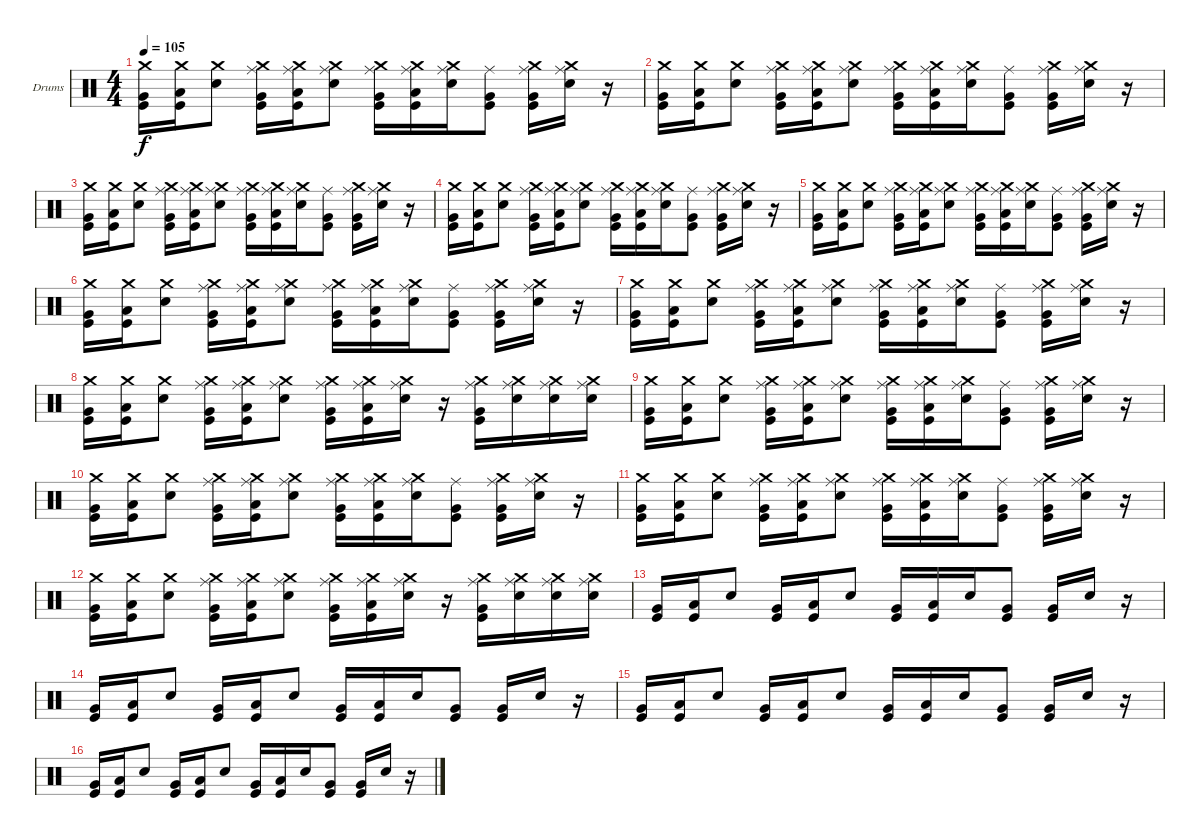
\defaultSystemsLayout 4
\bracketExtendMode groupsimilarinstruments
\firstSystemTrackNameOrientation horizontal
\otherSystemsTrackNameOrientation horizontal
\track ("Steve" "Drums") {instrument percussion}
\staff {score}
\articulation defaults
\ts (4 4)
\tempo 105
\clef neutral
\ks c
("Very Low Tom (hit)" "Crash medium (hit)" "Kick (hit)").16{dy f} ("Low Tom (hit)" "Crash medium (hit)" "Kick (hit)").16 ("Snare (hit) 2" "Crash medium (hit)").8 ("Very Low Tom (hit)" "Ride (middle)" "Kick (hit)" "Crash medium (hit)").16 ("Low Tom (hit)" "Ride (middle)" "Kick (hit)" "Crash medium (hit)").16 ("Snare (hit) 2" "Ride (middle)" "Crash medium (hit)").8 ("Very Low Tom (hit)" "Ride (middle)" "Kick (hit)" "Crash medium (hit)").16 ("Low Tom (hit)" "Ride (middle)" "Kick (hit)" "Crash medium (hit)").16 ("Snare (hit) 2" "Ride (middle)" "Crash medium (hit)").16 ("Very Low Tom (hit)" "Ride (middle)" "Kick (hit)").8 ("Very Low Tom (hit)" "Ride (middle)" "Kick (hit)" "Crash medium (hit)").16 ("Snare (hit) 2" "Ride (middle)" "Crash medium (hit)").16 r.16 |
("Very Low Tom (hit)" "Crash medium (hit)" "Kick (hit)").16 ("Low Tom (hit)" "Crash medium (hit)" "Kick (hit)").16 ("Snare (hit) 2" "Crash medium (hit)").8 ("Very Low Tom (hit)" "Ride (middle)" "Kick (hit)" "Crash medium (hit)").16 ("Low Tom (hit)" "Ride (middle)" "Kick (hit)" "Crash medium (hit)").16 ("Snare (hit) 2" "Ride (middle)" "Crash medium (hit)").8 ("Very Low Tom (hit)" "Ride (middle)" "Kick (hit)" "Crash medium (hit)").16 ("Low Tom (hit)" "Ride (middle)" "Kick (hit)" "Crash medium (hit)").16 ("Snare (hit) 2" "Ride (middle)" "Crash medium (hit)").16 ("Very Low Tom (hit)" "Ride (middle)" "Kick (hit)").8 ("Very Low Tom (hit)" "Ride (middle)" "Kick (hit)" "Crash medium (hit)").16 ("Snare (hit) 2" "Ride (middle)" "Crash medium (hit)").16 r.16 |
("Very Low Tom (hit)" "Crash medium (hit)" "Kick (hit)").16 ("Low Tom (hit)" "Crash medium (hit)" "Kick (hit)").16 ("Snare (hit) 2" "Crash medium (hit)").8 ("Very Low Tom (hit)" "Ride (middle)" "Kick (hit)" "Crash medium (hit)").16 ("Low Tom (hit)" "Ride (middle)" "Kick (hit)" "Crash medium (hit)").16 ("Snare (hit) 2" "Ride (middle)" "Crash medium (hit)").8 ("Very Low Tom (hit)" "Ride (middle)" "Kick (hit)" "Crash medium (hit)").16 ("Low Tom (hit)" "Ride (middle)" "Kick (hit)" "Crash medium (hit)").16 ("Snare (hit) 2" "Ride (middle)" "Crash medium (hit)").16 ("Very Low Tom (hit)" "Ride (middle)" "Kick (hit)").8 ("Very Low Tom (hit)" "Ride (middle)" "Kick (hit)" "Crash medium (hit)").16 ("Snare (hit) 2" "Ride (middle)" "Crash medium (hit)").16 r.16 |
("Very Low Tom (hit)" "Crash medium (hit)" "Kick (hit)").16 ("Low Tom (hit)" "Crash medium (hit)" "Kick (hit)").16 ("Snare (hit) 2" "Crash medium (hit)").8 ("Very Low Tom (hit)" "Ride (middle)" "Kick (hit)" "Crash medium (hit)").16 ("Low Tom (hit)" "Ride (middle)" "Kick (hit)" "Crash medium (hit)").16 ("Snare (hit) 2" "Ride (middle)" "Crash medium (hit)").8 ("Very Low Tom (hit)" "Ride (middle)" "Kick (hit)" "Crash medium (hit)").16 ("Low Tom (hit)" "Ride (middle)" "Kick (hit)" "Crash medium (hit)").16 ("Snare (hit) 2" "Ride (middle)" "Crash medium (hit)").16 ("Very Low Tom (hit)" "Ride (middle)" "Kick (hit)").8 ("Very Low Tom (hit)" "Ride (middle)" "Kick (hit)" "Crash medium (hit)").16 ("Snare (hit) 2" "Ride (middle)" "Crash medium (hit)").16 r.16 |
("Very Low Tom (hit)" "Crash medium (hit)" "Kick (hit)").16 ("Low Tom (hit)" "Crash medium (hit)" "Kick (hit)").16 ("Snare (hit) 2" "Crash medium (hit)").8 ("Very Low Tom (hit)" "Ride (middle)" "Kick (hit)" "Crash medium (hit)").16 ("Low Tom (hit)" "Ride (middle)" "Kick (hit)" "Crash medium (hit)").16 ("Snare (hit) 2" "Ride (middle)" "Crash medium (hit)").8 ("Very Low Tom (hit)" "Ride (middle)" "Kick (hit)" "Crash medium (hit)").16 ("Low Tom (hit)" "Ride (middle)" "Kick (hit)" "Crash medium (hit)").16 ("Snare (hit) 2" "Ride (middle)" "Crash medium (hit)").16 ("Very Low Tom (hit)" "Ride (middle)" "Kick (hit)").8 ("Very Low Tom (hit)" "Ride (middle)" "Kick (hit)" "Crash medium (hit)").16 ("Snare (hit) 2" "Ride (middle)" "Crash medium (hit)").16 r.16 |
("Very Low Tom (hit)" "Crash medium (hit)" "Kick (hit)").16 ("Low Tom (hit)" "Crash medium (hit)" "Kick (hit)").16 ("Snare (hit) 2" "Crash medium (hit)").8 ("Very Low Tom (hit)" "Ride (middle)" "Kick (hit)" "Crash medium (hit)").16 ("Low Tom (hit)" "Ride (middle)" "Kick (hit)" "Crash medium (hit)").16 ("Snare (hit) 2" "Ride (middle)" "Crash medium (hit)").8 ("Very Low Tom (hit)" "Ride (middle)" "Kick (hit)" "Crash medium (hit)").16 ("Low Tom (hit)" "Ride (middle)" "Kick (hit)" "Crash medium (hit)").16 ("Snare (hit) 2" "Ride (middle)" "Crash medium (hit)").16 ("Very Low Tom (hit)" "Ride (middle)" "Kick (hit)").8 ("Very Low Tom (hit)" "Ride (middle)" "Kick (hit)" "Crash medium (hit)").16 ("Snare (hit) 2" "Ride (middle)" "Crash medium (hit)").16 r.16 |
("Very Low Tom (hit)" "Crash medium (hit)" "Kick (hit)").16 ("Low Tom (hit)" "Crash medium (hit)" "Kick (hit)").16 ("Snare (hit) 2" "Crash medium (hit)").8 ("Very Low Tom (hit)" "Ride (middle)" "Kick (hit)" "Crash medium (hit)").16 ("Low Tom (hit)" "Ride (middle)" "Kick (hit)" "Crash medium (hit)").16 ("Snare (hit) 2" "Ride (middle)" "Crash medium (hit)").8 ("Very Low Tom (hit)" "Ride (middle)" "Kick (hit)" "Crash medium (hit)").16 ("Low Tom (hit)" "Ride (middle)" "Kick (hit)" "Crash medium (hit)").16 ("Snare (hit) 2" "Ride (middle)" "Crash medium (hit)").16 ("Very Low Tom (hit)" "Ride (middle)" "Kick (hit)").8 ("Very Low Tom (hit)" "Ride (middle)" "Kick (hit)" "Crash medium (hit)").16 ("Snare (hit) 2" "Ride (middle)" "Crash medium (hit)").16 r.16 |
("Very Low Tom (hit)" "Crash medium (hit)" "Kick (hit)").16 ("Low Tom (hit)" "Crash medium (hit)" "Kick (hit)").16 ("Snare (hit) 2" "Crash medium (hit)").8 ("Very Low Tom (hit)" "Ride (middle)" "Kick (hit)" "Crash medium (hit)").16 ("Low Tom (hit)" "Ride (middle)" "Kick (hit)" "Crash medium (hit)").16 ("Snare (hit) 2" "Ride (middle)" "Crash medium (hit)").8 ("Very Low Tom (hit)" "Ride (middle)" "Kick (hit)" "Crash medium (hit)").16 ("Low Tom (hit)" "Ride (middle)" "Kick (hit)" "Crash medium (hit)").16 ("Snare (hit) 2" "Ride (middle)" "Crash medium (hit)").16 r.16 ("Very Low Tom (hit)" "Ride (middle)" "Kick (hit)" "Crash medium (hit)").16 ("Snare (hit) 2" "Ride (middle)" "Crash medium (hit)").16 ("Snare (hit) 2" "Ride (middle)" "Crash medium (hit)").16 ("Snare (hit) 2" "Ride (middle)" "Crash medium (hit)").16 |
("Very Low Tom (hit)" "Crash medium (hit)" "Kick (hit)").16 ("Low Tom (hit)" "Crash medium (hit)" "Kick (hit)").16 ("Snare (hit) 2" "Crash medium (hit)").8 ("Very Low Tom (hit)" "Ride (middle)" "Kick (hit)" "Crash medium (hit)").16 ("Low Tom (hit)" "Ride (middle)" "Kick (hit)" "Crash medium (hit)").16 ("Snare (hit) 2" "Ride (middle)" "Crash medium (hit)").8 ("Very Low Tom (hit)" "Ride (middle)" "Kick (hit)" "Crash medium (hit)").16 ("Low Tom (hit)" "Ride (middle)" "Kick (hit)" "Crash medium (hit)").16 ("Snare (hit) 2" "Ride (middle)" "Crash medium (hit)").16 ("Very Low Tom (hit)" "Ride (middle)" "Kick (hit)").8 ("Very Low Tom (hit)" "Ride (middle)" "Kick (hit)" "Crash medium (hit)").16 ("Snare (hit) 2" "Ride (middle)" "Crash medium (hit)").16 r.16 |
("Very Low Tom (hit)" "Crash medium (hit)" "Kick (hit)").16 ("Low Tom (hit)" "Crash medium (hit)" "Kick (hit)").16 ("Snare (hit) 2" "Crash medium (hit)").8 ("Very Low Tom (hit)" "Ride (middle)" "Kick (hit)" "Crash medium (hit)").16 ("Low Tom (hit)" "Ride (middle)" "Kick (hit)" "Crash medium (hit)").16 ("Snare (hit) 2" "Ride (middle)" "Crash medium (hit)").8 ("Very Low Tom (hit)" "Ride (middle)" "Kick (hit)" "Crash medium (hit)").16 ("Low Tom (hit)" "Ride (middle)" "Kick (hit)" "Crash medium (hit)").16 ("Snare (hit) 2" "Ride (middle)" "Crash medium (hit)").16 ("Very Low Tom (hit)" "Ride (middle)" "Kick (hit)").8 ("Very Low Tom (hit)" "Ride (middle)" "Kick (hit)" "Crash medium (hit)").16 ("Snare (hit) 2" "Ride (middle)" "Crash medium (hit)").16 r.16 |
("Very Low Tom (hit)" "Crash medium (hit)" "Kick (hit)").16 ("Low Tom (hit)" "Crash medium (hit)" "Kick (hit)").16 ("Snare (hit) 2" "Crash medium (hit)").8 ("Very Low Tom (hit)" "Ride (middle)" "Kick (hit)" "Crash medium (hit)").16 ("Low Tom (hit)" "Ride (middle)" "Kick (hit)" "Crash medium (hit)").16 ("Snare (hit) 2" "Ride (middle)" "Crash medium (hit)").8 ("Very Low Tom (hit)" "Ride (middle)" "Kick (hit)" "Crash medium (hit)").16 ("Low Tom (hit)" "Ride (middle)" "Kick (hit)" "Crash medium (hit)").16 ("Snare (hit) 2" "Ride (middle)" "Crash medium (hit)").16 ("Very Low Tom (hit)" "Ride (middle)" "Kick (hit)").8 ("Very Low Tom (hit)" "Ride (middle)" "Kick (hit)" "Crash medium (hit)").16 ("Snare (hit) 2" "Ride (middle)" "Crash medium (hit)").16 r.16 |
("Very Low Tom (hit)" "Crash medium (hit)" "Kick (hit)").16 ("Low Tom (hit)" "Crash medium (hit)" "Kick (hit)").16 ("Snare (hit) 2" "Crash medium (hit)").8 ("Very Low Tom (hit)" "Ride (middle)" "Kick (hit)" "Crash medium (hit)").16 ("Low Tom (hit)" "Ride (middle)" "Kick (hit)" "Crash medium (hit)").16 ("Snare (hit) 2" "Ride (middle)" "Crash medium (hit)").8 ("Very Low Tom (hit)" "Ride (middle)" "Kick (hit)" "Crash medium (hit)").16 ("Low Tom (hit)" "Ride (middle)" "Kick (hit)" "Crash medium (hit)").16 ("Snare (hit) 2" "Ride (middle)" "Crash medium (hit)").16 r.16 ("Very Low Tom (hit)" "Ride (middle)" "Kick (hit)" "Crash medium (hit)").16 ("Snare (hit) 2" "Ride (middle)" "Crash medium (hit)").16 ("Snare (hit) 2" "Ride (middle)" "Crash medium (hit)").16 ("Snare (hit) 2" "Ride (middle)" "Crash medium (hit)").16 |
("Very Low Tom (hit)" "Kick (hit)").16 ("Low Tom (hit)" "Kick (hit)").16 "Snare (hit) 2".8 ("Very Low Tom (hit)" "Kick (hit)").16 ("Low Tom (hit)" "Kick (hit)").16 "Snare (hit) 2".8 ("Very Low Tom (hit)" "Kick (hit)").16 ("Low Tom (hit)" "Kick (hit)").16 "Snare (hit) 2".16 ("Very Low Tom (hit)" "Kick (hit)").8 ("Very Low Tom (hit)" "Kick (hit)").16 "Snare (hit) 2".16 r.16 |
("Very Low Tom (hit)" "Kick (hit)").16 ("Low Tom (hit)" "Kick (hit)").16 "Snare (hit) 2".8 ("Very Low Tom (hit)" "Kick (hit)").16 ("Low Tom (hit)" "Kick (hit)").16 "Snare (hit) 2".8 ("Very Low Tom (hit)" "Kick (hit)").16 ("Low Tom (hit)" "Kick (hit)").16 "Snare (hit) 2".16 ("Very Low Tom (hit)" "Kick (hit)").8 ("Very Low Tom (hit)" "Kick (hit)").16 "Snare (hit) 2".16 r.16 |
("Very Low Tom (hit)" "Kick (hit)").16 ("Low Tom (hit)" "Kick (hit)").16 "Snare (hit) 2".8 ("Very Low Tom (hit)" "Kick (hit)").16 ("Low Tom (hit)" "Kick (hit)").16 "Snare (hit) 2".8 ("Very Low Tom (hit)" "Kick (hit)").16 ("Low Tom (hit)" "Kick (hit)").16 "Snare (hit) 2".16 ("Very Low Tom (hit)" "Kick (hit)").8 ("Very Low Tom (hit)" "Kick (hit)").16 "Snare (hit) 2".16 r.16 |
("Very Low Tom (hit)" "Kick (hit)").16 ("Low Tom (hit)" "Kick (hit)").16 "Snare (hit) 2".8 ("Very Low Tom (hit)" "Kick (hit)").16 ("Low Tom (hit)" "Kick (hit)").16 "Snare (hit) 2".8 ("Very Low Tom (hit)" "Kick (hit)").16 ("Low Tom (hit)" "Kick (hit)").16 "Snare (hit) 2".16 ("Very Low Tom (hit)" "Kick (hit)").8 ("Very Low Tom (hit)" "Kick (hit)").16 "Snare (hit) 2".16 r.16
